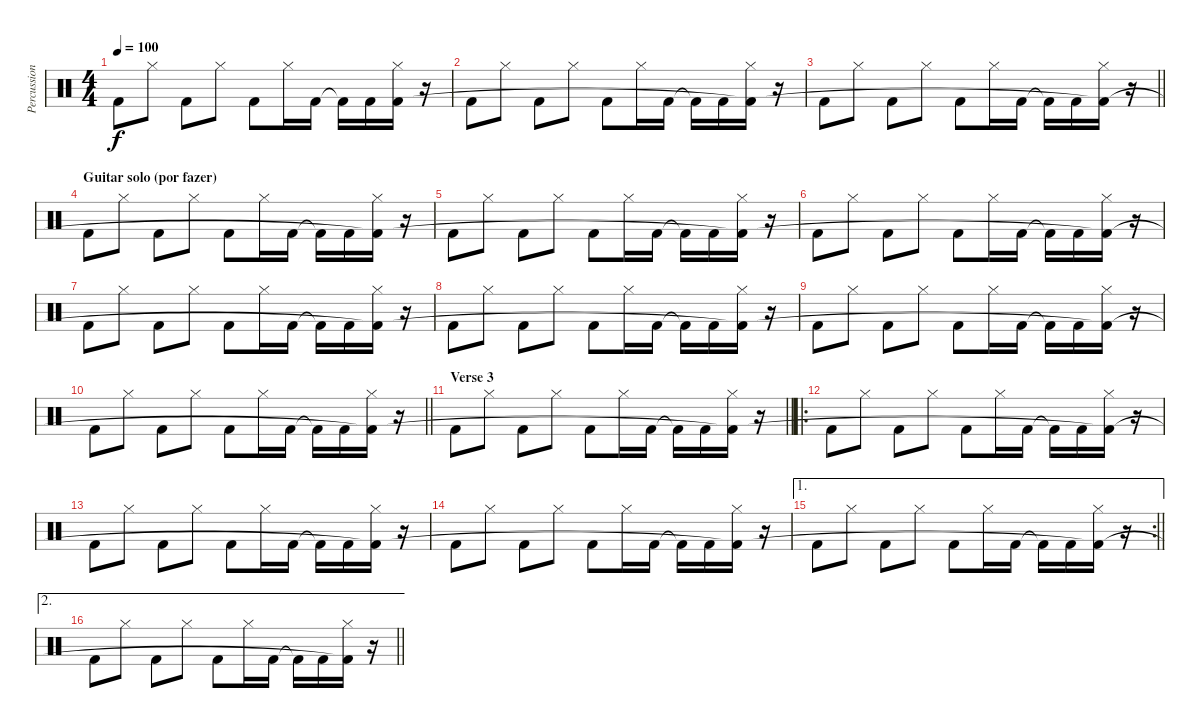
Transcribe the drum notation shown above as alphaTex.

\track ("Percussion" "Percussion") {instrument percussion}
\staff {score}
\articulation defaults
\ts (4 4)
\tempo 100
\clef neutral
\ks c "Kick (hit) 2".8{dy f} "Hi-Hat (closed)".8 "Kick (hit) 2".8 "Hi-Hat (closed)".8 "Kick (hit) 2".8 "Hi-Hat (closed)".16 "Kick (hit) 2".16 "Kick (hit) 2"{t}.16 "Kick (hit) 2".16
("Hi-Hat (closed)" "Kick (hit) 2"{t}).16 r.16 |
"Kick (hit) 2".8 "Hi-Hat (closed)".8 "Kick (hit) 2".8 "Hi-Hat (closed)".8 "Kick (hit) 2".8 "Hi-Hat (closed)".16 "Kick (hit) 2".16 "Kick (hit) 2"{t}.16 "Kick (hit) 2".16 ("Hi-Hat (closed)" "Kick (hit) 2"{t}).16 r.16 |
\barLineRight lightlight "Kick (hit) 2".8 "Hi-Hat (closed)".8 "Kick (hit) 2".8 "Hi-Hat (closed)".8 "Kick (hit) 2".8 "Hi-Hat (closed)".16 "Kick (hit) 2".16 "Kick (hit) 2"{t}.16 "Kick (hit) 2".16
("Hi-Hat (closed)" "Kick (hit) 2"{t}).16 r.16 |
\section ("" "Guitar solo (por fazer)")
"Kick (hit) 2".8 "Hi-Hat (closed)".8 "Kick (hit) 2".8 "Hi-Hat (closed)".8 "Kick (hit) 2".8 "Hi-Hat (closed)".16 "Kick (hit) 2".16 "Kick (hit) 2"{t}.16 "Kick (hit) 2".16 ("Hi-Hat (closed)" "Kick (hit) 2"{t}).16 r.16 |
"Kick (hit) 2".8 "Hi-Hat (closed)".8 "Kick (hit) 2".8 "Hi-Hat (closed)".8 "Kick (hit) 2".8 "Hi-Hat (closed)".16 "Kick (hit) 2".16 "Kick (hit) 2"{t}.16 "Kick (hit) 2".16 ("Hi-Hat (closed)" "Kick (hit) 2"{t}).16 r.16 |
"Kick (hit) 2".8 "Hi-Hat (closed)".8 "Kick (hit) 2".8 "Hi-Hat (closed)".8 "Kick (hit) 2".8 "Hi-Hat (closed)".16 "Kick (hit) 2".16 "Kick (hit) 2"{t}.16 "Kick (hit) 2".16 ("Hi-Hat (closed)" "Kick (hit) 2"{t}).16 r.16 |
"Kick (hit) 2".8 "Hi-Hat (closed)".8 "Kick (hit) 2".8 "Hi-Hat (closed)".8 "Kick (hit) 2".8 "Hi-Hat (closed)".16 "Kick (hit) 2".16 "Kick (hit) 2"{t}.16 "Kick (hit) 2".16 ("Hi-Hat (closed)" "Kick (hit) 2"{t}).16 r.16 |
"Kick (hit) 2".8 "Hi-Hat (closed)".8 "Kick (hit) 2".8 "Hi-Hat (closed)".8 "Kick (hit) 2".8 "Hi-Hat (closed)".16 "Kick (hit) 2".16 "Kick (hit) 2"{t}.16 "Kick (hit) 2".16 ("Hi-Hat (closed)" "Kick (hit) 2"{t}).16 r.16 |
"Kick (hit) 2".8 "Hi-Hat (closed)".8 "Kick (hit) 2".8 "Hi-Hat (closed)".8 "Kick (hit) 2".8 "Hi-Hat (closed)".16 "Kick (hit) 2".16 "Kick (hit) 2"{t}.16 "Kick (hit) 2".16 ("Hi-Hat (closed)" "Kick (hit) 2"{t}).16 r.16 |
\barLineRight lightlight "Kick (hit) 2".8 "Hi-Hat (closed)".8 "Kick (hit) 2".8 "Hi-Hat (closed)".8 "Kick (hit) 2".8 "Hi-Hat (closed)".16 "Kick (hit) 2".16 "Kick (hit) 2"{t}.16 "Kick (hit) 2".16
("Hi-Hat (closed)" "Kick (hit) 2"{t}).16 r.16 |
\section ("" "Verse 3")
\barLineRight lightlight "Kick (hit) 2".8 "Hi-Hat (closed)".8 "Kick (hit) 2".8 "Hi-Hat (closed)".8 "Kick (hit) 2".8 "Hi-Hat (closed)".16 "Kick (hit) 2".16 "Kick (hit) 2"{t}.16 "Kick (hit) 2".16
("Hi-Hat (closed)" "Kick (hit) 2"{t}).16 r.16 |
\ro "Kick (hit) 2".8 "Hi-Hat (closed)".8 "Kick (hit) 2".8 "Hi-Hat (closed)".8 "Kick (hit) 2".8 "Hi-Hat (closed)".16 "Kick (hit) 2".16 "Kick (hit) 2"{t}.16 "Kick (hit) 2".16
("Hi-Hat (closed)" "Kick (hit) 2"{t}).16 r.16 |
"Kick (hit) 2".8 "Hi-Hat (closed)".8 "Kick (hit) 2".8 "Hi-Hat (closed)".8 "Kick (hit) 2".8 "Hi-Hat (closed)".16 "Kick (hit) 2".16 "Kick (hit) 2"{t}.16 "Kick (hit) 2".16 ("Hi-Hat (closed)" "Kick (hit) 2"{t}).16 r.16 |
"Kick (hit) 2".8 "Hi-Hat (closed)".8 "Kick (hit) 2".8 "Hi-Hat (closed)".8 "Kick (hit) 2".8 "Hi-Hat (closed)".16 "Kick (hit) 2".16 "Kick (hit) 2"{t}.16 "Kick (hit) 2".16 ("Hi-Hat (closed)" "Kick (hit) 2"{t}).16 r.16 |
\ae 1
\rc 2
\barLineRight lightlight "Kick (hit) 2".8 "Hi-Hat (closed)".8 "Kick (hit) 2".8 "Hi-Hat (closed)".8 "Kick (hit) 2".8 "Hi-Hat (closed)".16 "Kick (hit) 2".16 "Kick (hit) 2"{t}.16 "Kick (hit) 2".16
("Hi-Hat (closed)" "Kick (hit) 2"{t}).16 r.16 |
\ae 2
\barLineRight lightlight "Kick (hit) 2".8 "Hi-Hat (closed)".8 "Kick (hit) 2".8 "Hi-Hat (closed)".8 "Kick (hit) 2".8 "Hi-Hat (closed)".16 "Kick (hit) 2".16 "Kick (hit) 2"{t}.16 "Kick (hit) 2".16
("Hi-Hat (closed)" "Kick (hit) 2"{t}).16 r.16
